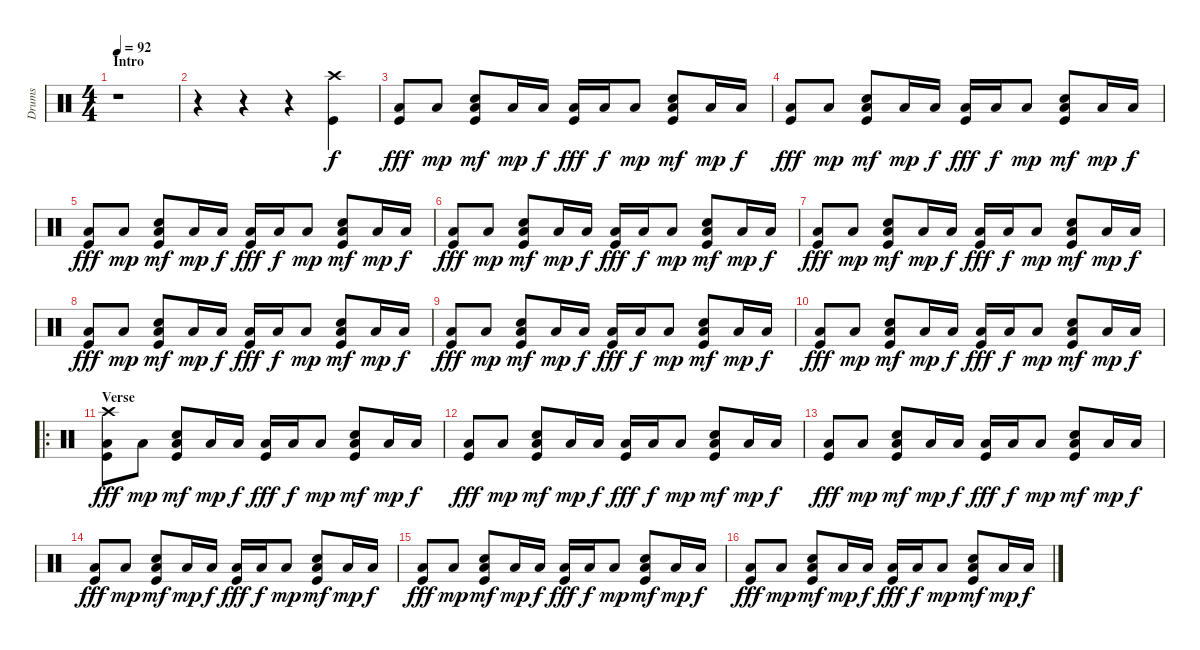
\track ("Drums" "Drums") {instrument percussion}
\staff {score}
\articulation defaults
\ts (4 4)
\section ("" "Intro")
\tempo 92
\clef neutral
\ks c
r.1{dy f} |
r.4 r.4 r.4 ("Crash high (hit)" "Kick (hit)").4 |
("Low Floor Tom (hit)" "Kick (hit)").8{dy fff} "Low Floor Tom (hit)".8{dy mp} ("Electric Snare (hit)" "Low Floor Tom (hit)" "Kick (hit)").8{dy mf} "Low Floor Tom (hit)".16{dy mp} "Low Tom (hit)".16{dy f} ("Low Floor Tom (hit)" "Kick (hit)").16{dy fff} "Low Tom (hit)".16{dy f} "Low Floor Tom (hit)".8{dy mp} ("Electric Snare (hit)" "Low Floor Tom (hit)" "Kick (hit)").8{dy mf} "Low Floor Tom (hit)".16{dy mp} "Low Tom (hit)".16{dy f} |
("Low Floor Tom (hit)" "Kick (hit)").8{dy fff} "Low Floor Tom (hit)".8{dy mp} ("Electric Snare (hit)" "Low Floor Tom (hit)" "Kick (hit)").8{dy mf} "Low Floor Tom (hit)".16{dy mp} "Low Tom (hit)".16{dy f} ("Low Floor Tom (hit)" "Kick (hit)").16{dy fff} "Low Tom (hit)".16{dy f} "Low Floor Tom (hit)".8{dy mp} ("Electric Snare (hit)" "Low Floor Tom (hit)" "Kick (hit)").8{dy mf} "Low Floor Tom (hit)".16{dy mp} "Low Tom (hit)".16{dy f} |
("Low Floor Tom (hit)" "Kick (hit)").8{dy fff} "Low Floor Tom (hit)".8{dy mp} ("Electric Snare (hit)" "Low Floor Tom (hit)" "Kick (hit)").8{dy mf} "Low Floor Tom (hit)".16{dy mp} "Low Tom (hit)".16{dy f} ("Low Floor Tom (hit)" "Kick (hit)").16{dy fff} "Low Tom (hit)".16{dy f} "Low Floor Tom (hit)".8{dy mp} ("Electric Snare (hit)" "Low Floor Tom (hit)" "Kick (hit)").8{dy mf} "Low Floor Tom (hit)".16{dy mp} "Low Tom (hit)".16{dy f} |
("Low Floor Tom (hit)" "Kick (hit)").8{dy fff} "Low Floor Tom (hit)".8{dy mp} ("Electric Snare (hit)" "Low Floor Tom (hit)" "Kick (hit)").8{dy mf} "Low Floor Tom (hit)".16{dy mp} "Low Tom (hit)".16{dy f} ("Low Floor Tom (hit)" "Kick (hit)").16{dy fff} "Low Tom (hit)".16{dy f} "Low Floor Tom (hit)".8{dy mp} ("Electric Snare (hit)" "Low Floor Tom (hit)" "Kick (hit)").8{dy mf} "Low Floor Tom (hit)".16{dy mp} "Low Tom (hit)".16{dy f} |
("Low Floor Tom (hit)" "Kick (hit)").8{dy fff} "Low Floor Tom (hit)".8{dy mp} ("Electric Snare (hit)" "Low Floor Tom (hit)" "Kick (hit)").8{dy mf} "Low Floor Tom (hit)".16{dy mp} "Low Tom (hit)".16{dy f} ("Low Floor Tom (hit)" "Kick (hit)").16{dy fff} "Low Tom (hit)".16{dy f} "Low Floor Tom (hit)".8{dy mp} ("Electric Snare (hit)" "Low Floor Tom (hit)" "Kick (hit)").8{dy mf} "Low Floor Tom (hit)".16{dy mp} "Low Tom (hit)".16{dy f} |
("Low Floor Tom (hit)" "Kick (hit)").8{dy fff} "Low Floor Tom (hit)".8{dy mp} ("Electric Snare (hit)" "Low Floor Tom (hit)" "Kick (hit)").8{dy mf} "Low Floor Tom (hit)".16{dy mp} "Low Tom (hit)".16{dy f} ("Low Floor Tom (hit)" "Kick (hit)").16{dy fff} "Low Tom (hit)".16{dy f} "Low Floor Tom (hit)".8{dy mp} ("Electric Snare (hit)" "Low Floor Tom (hit)" "Kick (hit)").8{dy mf} "Low Floor Tom (hit)".16{dy mp} "Low Tom (hit)".16{dy f} |
("Low Floor Tom (hit)" "Kick (hit)").8{dy fff} "Low Floor Tom (hit)".8{dy mp} ("Electric Snare (hit)" "Low Floor Tom (hit)" "Kick (hit)").8{dy mf} "Low Floor Tom (hit)".16{dy mp} "Low Tom (hit)".16{dy f} ("Low Floor Tom (hit)" "Kick (hit)").16{dy fff} "Low Tom (hit)".16{dy f} "Low Floor Tom (hit)".8{dy mp} ("Electric Snare (hit)" "Low Floor Tom (hit)" "Kick (hit)").8{dy mf} "Low Floor Tom (hit)".16{dy mp} "Low Tom (hit)".16{dy f} |
("Low Floor Tom (hit)" "Kick (hit)").8{dy fff} "Low Floor Tom (hit)".8{dy mp} ("Electric Snare (hit)" "Low Floor Tom (hit)" "Kick (hit)").8{dy mf} "Low Floor Tom (hit)".16{dy mp} "Low Tom (hit)".16{dy f} ("Low Floor Tom (hit)" "Kick (hit)").16{dy fff} "Low Tom (hit)".16{dy f} "Low Floor Tom (hit)".8{dy mp} ("Electric Snare (hit)" "Low Floor Tom (hit)" "Kick (hit)").8{dy mf} "Low Floor Tom (hit)".16{dy mp} "Low Tom (hit)".16{dy f} |
\ro
\section ("" "Verse")
("Crash high (hit)" "Low Floor Tom (hit)" "Kick (hit)").8{dy fff} "Low Floor Tom (hit)".8{dy mp} ("Electric Snare (hit)" "Low Floor Tom (hit)" "Kick (hit)").8{dy mf} "Low Floor Tom (hit)".16{dy mp} "Low Tom (hit)".16{dy f} ("Low Floor Tom (hit)" "Kick (hit)").16{dy fff} "Low Tom (hit)".16{dy f} "Low Floor Tom (hit)".8{dy mp} ("Electric Snare (hit)" "Low Floor Tom (hit)" "Kick (hit)").8{dy mf} "Low Floor Tom (hit)".16{dy mp} "Low Tom (hit)".16{dy f} |
("Low Floor Tom (hit)" "Kick (hit)").8{dy fff} "Low Floor Tom (hit)".8{dy mp} ("Electric Snare (hit)" "Low Floor Tom (hit)" "Kick (hit)").8{dy mf} "Low Floor Tom (hit)".16{dy mp} "Low Tom (hit)".16{dy f} ("Low Floor Tom (hit)" "Kick (hit)").16{dy fff} "Low Tom (hit)".16{dy f} "Low Floor Tom (hit)".8{dy mp} ("Electric Snare (hit)" "Low Floor Tom (hit)" "Kick (hit)").8{dy mf} "Low Floor Tom (hit)".16{dy mp} "Low Tom (hit)".16{dy f} |
("Low Floor Tom (hit)" "Kick (hit)").8{dy fff} "Low Floor Tom (hit)".8{dy mp} ("Electric Snare (hit)" "Low Floor Tom (hit)" "Kick (hit)").8{dy mf} "Low Floor Tom (hit)".16{dy mp} "Low Tom (hit)".16{dy f} ("Low Floor Tom (hit)" "Kick (hit)").16{dy fff} "Low Tom (hit)".16{dy f} "Low Floor Tom (hit)".8{dy mp} ("Electric Snare (hit)" "Low Floor Tom (hit)" "Kick (hit)").8{dy mf} "Low Floor Tom (hit)".16{dy mp} "Low Tom (hit)".16{dy f} |
("Low Floor Tom (hit)" "Kick (hit)").8{dy fff} "Low Floor Tom (hit)".8{dy mp} ("Electric Snare (hit)" "Low Floor Tom (hit)" "Kick (hit)").8{dy mf} "Low Floor Tom (hit)".16{dy mp} "Low Tom (hit)".16{dy f} ("Low Floor Tom (hit)" "Kick (hit)").16{dy fff} "Low Tom (hit)".16{dy f} "Low Floor Tom (hit)".8{dy mp} ("Electric Snare (hit)" "Low Floor Tom (hit)" "Kick (hit)").8{dy mf} "Low Floor Tom (hit)".16{dy mp} "Low Tom (hit)".16{dy f} |
("Low Floor Tom (hit)" "Kick (hit)").8{dy fff} "Low Floor Tom (hit)".8{dy mp} ("Electric Snare (hit)" "Low Floor Tom (hit)" "Kick (hit)").8{dy mf} "Low Floor Tom (hit)".16{dy mp} "Low Tom (hit)".16{dy f} ("Low Floor Tom (hit)" "Kick (hit)").16{dy fff} "Low Tom (hit)".16{dy f} "Low Floor Tom (hit)".8{dy mp} ("Electric Snare (hit)" "Low Floor Tom (hit)" "Kick (hit)").8{dy mf} "Low Floor Tom (hit)".16{dy mp} "Low Tom (hit)".16{dy f} |
("Low Floor Tom (hit)" "Kick (hit)").8{dy fff} "Low Floor Tom (hit)".8{dy mp} ("Electric Snare (hit)" "Low Floor Tom (hit)" "Kick (hit)").8{dy mf} "Low Floor Tom (hit)".16{dy mp} "Low Tom (hit)".16{dy f} ("Low Floor Tom (hit)" "Kick (hit)").16{dy fff} "Low Tom (hit)".16{dy f} "Low Floor Tom (hit)".8{dy mp} ("Electric Snare (hit)" "Low Floor Tom (hit)" "Kick (hit)").8{dy mf} "Low Floor Tom (hit)".16{dy mp} "Low Tom (hit)".16{dy f}
